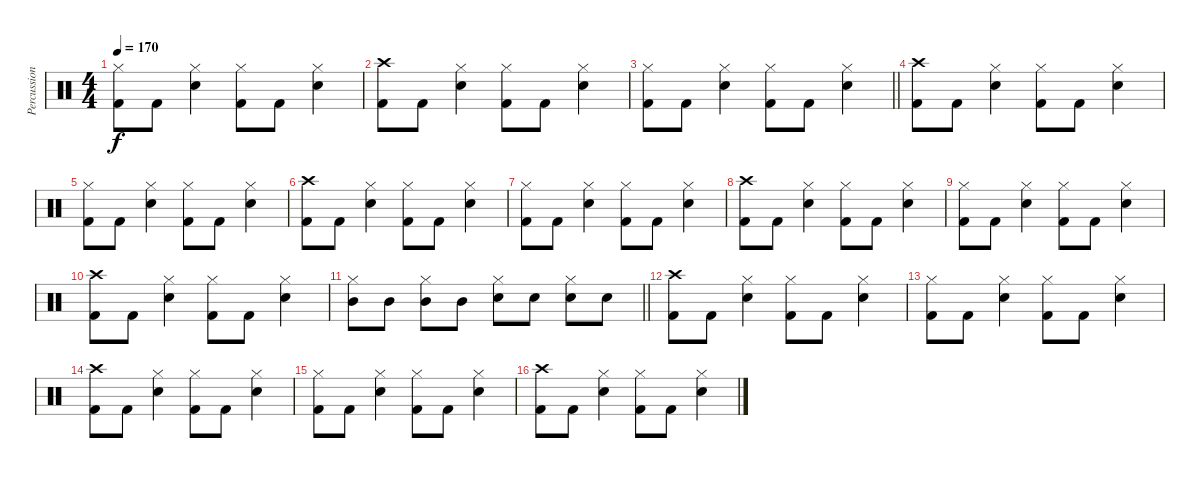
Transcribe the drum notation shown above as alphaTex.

\track ("Percussion" "Percussion") {instrument percussion}
\staff {score}
\articulation defaults
\ts (4 4)
\tempo 170
\clef neutral
\ks c
("Hi-Hat (closed)" "Kick (hit) 2").8{dy f} "Kick (hit) 2".8 ("Hi-Hat (closed)" "Electric Snare (hit)").4 ("Hi-Hat (closed)" "Kick (hit) 2").8 "Kick (hit) 2".8 ("Hi-Hat (closed)" "Electric Snare (hit)").4 |
("Crash high (hit)" "Kick (hit) 2").8 "Kick (hit) 2".8 ("Hi-Hat (closed)" "Electric Snare (hit)").4 ("Hi-Hat (closed)" "Kick (hit) 2").8 "Kick (hit) 2".8 ("Hi-Hat (closed)" "Electric Snare (hit)").4 |
\barLineRight lightlight
("Hi-Hat (closed)" "Kick (hit) 2").8 "Kick (hit) 2".8 ("Hi-Hat (closed)" "Electric Snare (hit)").4 ("Hi-Hat (closed)" "Kick (hit) 2").8 "Kick (hit) 2".8 ("Hi-Hat (closed)" "Electric Snare (hit)").4 |
("Crash high (hit)" "Kick (hit) 2").8 "Kick (hit) 2".8 ("Hi-Hat (closed)" "Electric Snare (hit)").4 ("Hi-Hat (closed)" "Kick (hit) 2").8 "Kick (hit) 2".8 ("Hi-Hat (closed)" "Electric Snare (hit)").4 |
("Hi-Hat (closed)" "Kick (hit) 2").8 "Kick (hit) 2".8 ("Hi-Hat (closed)" "Electric Snare (hit)").4 ("Hi-Hat (closed)" "Kick (hit) 2").8 "Kick (hit) 2".8 ("Hi-Hat (closed)" "Electric Snare (hit)").4 |
("Crash high (hit)" "Kick (hit) 2").8 "Kick (hit) 2".8 ("Hi-Hat (closed)" "Electric Snare (hit)").4 ("Hi-Hat (closed)" "Kick (hit) 2").8 "Kick (hit) 2".8 ("Hi-Hat (closed)" "Electric Snare (hit)").4 |
("Hi-Hat (closed)" "Kick (hit) 2").8 "Kick (hit) 2".8 ("Hi-Hat (closed)" "Electric Snare (hit)").4 ("Hi-Hat (closed)" "Kick (hit) 2").8 "Kick (hit) 2".8 ("Hi-Hat (closed)" "Electric Snare (hit)").4 |
("Crash high (hit)" "Kick (hit) 2").8 "Kick (hit) 2".8 ("Hi-Hat (closed)" "Electric Snare (hit)").4 ("Hi-Hat (closed)" "Kick (hit) 2").8 "Kick (hit) 2".8 ("Hi-Hat (closed)" "Electric Snare (hit)").4 |
("Hi-Hat (closed)" "Kick (hit) 2").8 "Kick (hit) 2".8 ("Hi-Hat (closed)" "Electric Snare (hit)").4 ("Hi-Hat (closed)" "Kick (hit) 2").8 "Kick (hit) 2".8 ("Hi-Hat (closed)" "Electric Snare (hit)").4 |
("Crash high (hit)" "Kick (hit) 2").8 "Kick (hit) 2".8 ("Hi-Hat (closed)" "Electric Snare (hit)").4 ("Hi-Hat (closed)" "Kick (hit) 2").8 "Kick (hit) 2".8 ("Hi-Hat (closed)" "Electric Snare (hit)").4 |
\barLineRight lightlight
("Hi-Hat (closed)" "Mid Tom (hit)").8 "Mid Tom (hit)".8 ("Hi-Hat (closed)" "Mid Tom (hit)").8 "Mid Tom (hit)".8 ("Hi-Hat (closed)" "Electric Snare (hit)").8 "Electric Snare (hit)".8 ("Hi-Hat (closed)" "Electric Snare (hit)").8 "Electric Snare (hit)".8 |
("Crash high (hit)" "Kick (hit) 2").8 "Kick (hit) 2".8 ("Hi-Hat (closed)" "Electric Snare (hit)").4 ("Hi-Hat (closed)" "Kick (hit) 2").8 "Kick (hit) 2".8 ("Hi-Hat (closed)" "Electric Snare (hit)").4 |
("Hi-Hat (closed)" "Kick (hit) 2").8 "Kick (hit) 2".8 ("Hi-Hat (closed)" "Electric Snare (hit)").4 ("Hi-Hat (closed)" "Kick (hit) 2").8 "Kick (hit) 2".8 ("Hi-Hat (closed)" "Electric Snare (hit)").4 |
("Crash high (hit)" "Kick (hit) 2").8 "Kick (hit) 2".8 ("Hi-Hat (closed)" "Electric Snare (hit)").4 ("Hi-Hat (closed)" "Kick (hit) 2").8 "Kick (hit) 2".8 ("Hi-Hat (closed)" "Electric Snare (hit)").4 |
("Hi-Hat (closed)" "Kick (hit) 2").8 "Kick (hit) 2".8 ("Hi-Hat (closed)" "Electric Snare (hit)").4 ("Hi-Hat (closed)" "Kick (hit) 2").8 "Kick (hit) 2".8 ("Hi-Hat (closed)" "Electric Snare (hit)").4 |
("Crash high (hit)" "Kick (hit) 2").8 "Kick (hit) 2".8 ("Hi-Hat (closed)" "Electric Snare (hit)").4 ("Hi-Hat (closed)" "Kick (hit) 2").8 "Kick (hit) 2".8 ("Hi-Hat (closed)" "Electric Snare (hit)").4
